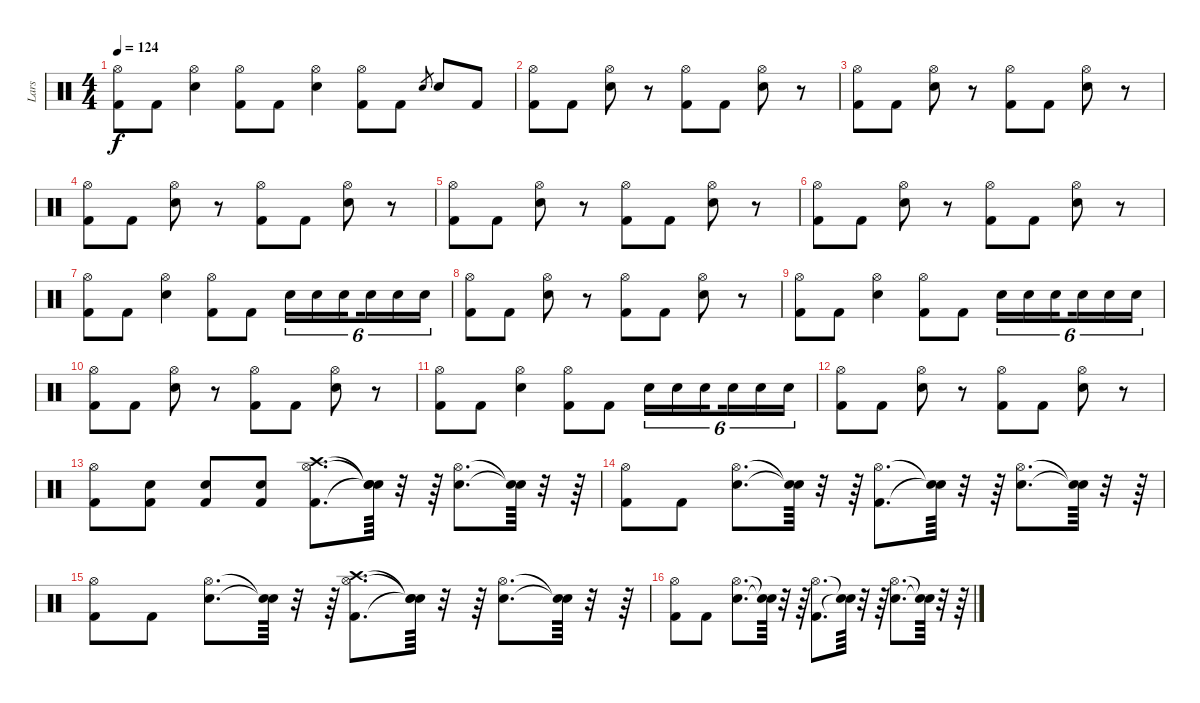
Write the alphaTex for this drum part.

\track ("Lars" "Lars") {instrument percussion}
\staff {score}
\articulation defaults
\ts (4 4)
\tempo 124
\clef neutral
\ks c
("Kick (hit) 2" "Hi-Hat (open)").8{dy f} "Kick (hit) 2".8 ("Snare (hit) 2" "Hi-Hat (open)").4 ("Kick (hit) 2" "Hi-Hat (open)").8 "Kick (hit) 2".8 ("Snare (hit) 2" "Hi-Hat (open)").4 ("Kick (hit) 2" "Hi-Hat (open)").8 "Kick (hit) 2".8 "Snare (hit) 2".8{gr} "Snare (hit) 2".8 "Kick (hit) 2".8 |
("Kick (hit) 2" "Hi-Hat (open)").8 "Kick (hit) 2".8 ("Snare (hit) 2" "Hi-Hat (open)").8 r.8 ("Kick (hit) 2" "Hi-Hat (open)").8 "Kick (hit) 2".8 ("Snare (hit) 2" "Hi-Hat (open)").8 r.8 |
("Kick (hit) 2" "Hi-Hat (open)").8 "Kick (hit) 2".8 ("Snare (hit) 2" "Hi-Hat (open)").8 r.8 ("Kick (hit) 2" "Hi-Hat (open)").8 "Kick (hit) 2".8 ("Snare (hit) 2" "Hi-Hat (open)").8 r.8 |
("Kick (hit) 2" "Hi-Hat (open)").8 "Kick (hit) 2".8 ("Snare (hit) 2" "Hi-Hat (open)").8 r.8 ("Kick (hit) 2" "Hi-Hat (open)").8 "Kick (hit) 2".8 ("Snare (hit) 2" "Hi-Hat (open)").8 r.8 |
("Kick (hit) 2" "Hi-Hat (open)").8 "Kick (hit) 2".8 ("Snare (hit) 2" "Hi-Hat (open)").8 r.8 ("Kick (hit) 2" "Hi-Hat (open)").8 "Kick (hit) 2".8 ("Snare (hit) 2" "Hi-Hat (open)").8 r.8 |
("Kick (hit) 2" "Hi-Hat (open)").8 "Kick (hit) 2".8 ("Snare (hit) 2" "Hi-Hat (open)").8 r.8 ("Kick (hit) 2" "Hi-Hat (open)").8 "Kick (hit) 2".8 ("Snare (hit) 2" "Hi-Hat (open)").8 r.8 |
("Kick (hit) 2" "Hi-Hat (open)").8 "Kick (hit) 2".8 ("Snare (hit) 2" "Hi-Hat (open)").4 ("Kick (hit) 2" "Hi-Hat (open)").8 "Kick (hit) 2".8 "Snare (hit) 2".16{tu (6 4)} "Snare (hit) 2".16{tu (6 4)} "Snare (hit) 2".16{tu (6 4) beam splitsecondary} "Snare (hit) 2".16{tu (6 4)} "Snare (hit) 2".16{tu (6 4)} "Snare (hit) 2".16{tu (6 4)} |
("Kick (hit) 2" "Hi-Hat (open)").8 "Kick (hit) 2".8 ("Snare (hit) 2" "Hi-Hat (open)").8 r.8 ("Kick (hit) 2" "Hi-Hat (open)").8 "Kick (hit) 2".8 ("Snare (hit) 2" "Hi-Hat (open)").8 r.8 |
("Kick (hit) 2" "Hi-Hat (open)").8 "Kick (hit) 2".8 ("Snare (hit) 2" "Hi-Hat (open)").4 ("Kick (hit) 2" "Hi-Hat (open)").8 "Kick (hit) 2".8 "Snare (hit) 2".16{tu (6 4)} "Snare (hit) 2".16{tu (6 4)} "Snare (hit) 2".16{tu (6 4) beam splitsecondary} "Snare (hit) 2".16{tu (6 4)} "Snare (hit) 2".16{tu (6 4)} "Snare (hit) 2".16{tu (6 4)} |
("Kick (hit) 2" "Hi-Hat (open)").8 "Kick (hit) 2".8 ("Snare (hit) 2" "Hi-Hat (open)").8 r.8 ("Kick (hit) 2" "Hi-Hat (open)").8 "Kick (hit) 2".8 ("Snare (hit) 2" "Hi-Hat (open)").8 r.8 |
("Kick (hit) 2" "Hi-Hat (open)").8 "Kick (hit) 2".8 ("Snare (hit) 2" "Hi-Hat (open)").4 ("Kick (hit) 2" "Hi-Hat (open)").8 "Kick (hit) 2".8 "Snare (hit) 2".16{tu (6 4)} "Snare (hit) 2".16{tu (6 4)} "Snare (hit) 2".16{tu (6 4) beam splitsecondary} "Snare (hit) 2".16{tu (6 4)} "Snare (hit) 2".16{tu (6 4)} "Snare (hit) 2".16{tu (6 4)} |
("Kick (hit) 2" "Hi-Hat (open)").8 "Kick (hit) 2".8 ("Snare (hit) 2" "Hi-Hat (open)").8 r.8 ("Kick (hit) 2" "Hi-Hat (open)").8 "Kick (hit) 2".8 ("Snare (hit) 2" "Hi-Hat (open)").8 r.8 |
("Kick (hit) 2" "Hi-Hat (open)").8 ("Kick (hit) 2" "Snare (hit) 2").8 ("Kick (hit) 2" "Snare (hit) 2").8 ("Kick (hit) 2" "Snare (hit) 2").8 ("Kick (hit) 2" "Hi-Hat (open)" "Crash high (hit)").8{d} ("Snare (hit)"{t} "Snare (hit)"{t} "Snare (hit)"{t}).64 r.32 r.64 ("Snare (hit) 2" "Hi-Hat (open)").8{d} ("Snare (hit)"{t} "Snare (hit)"{t}).64 r.32 r.64 |
("Kick (hit) 2" "Hi-Hat (open)").8 "Kick (hit) 2".8 ("Snare (hit) 2" "Hi-Hat (open)").8{d} ("Snare (hit)"{t} "Snare (hit)"{t}).64 r.32 r.64 ("Kick (hit) 2" "Hi-Hat (open)").8{d} ("Snare (hit)"{t} "Snare (hit)"{t}).64 r.32 r.64 ("Snare (hit) 2" "Hi-Hat (open)").8{d} ("Snare (hit)"{t} "Snare (hit)"{t}).64 r.32 r.64 |
("Kick (hit) 2" "Hi-Hat (open)").8 "Kick (hit) 2".8 ("Snare (hit) 2" "Hi-Hat (open)").8{d} ("Snare (hit)"{t} "Snare (hit)"{t}).64 r.32 r.64 ("Kick (hit) 2" "Hi-Hat (open)" "Crash high (hit)").8{d} ("Snare (hit)"{t} "Snare (hit)"{t} "Snare (hit)"{t}).64 r.32 r.64 ("Snare (hit) 2" "Hi-Hat (open)").8{d} ("Snare (hit)"{t} "Snare (hit)"{t}).64 r.32 r.64 |
("Kick (hit) 2" "Hi-Hat (open)").8 "Kick (hit) 2".8 ("Snare (hit) 2" "Hi-Hat (open)").8{d} ("Snare (hit)"{t} "Snare (hit)"{t}).64 r.32 r.64 ("Kick (hit) 2" "Hi-Hat (open)").8{d} ("Snare (hit)"{t} "Snare (hit)"{t}).64 r.32 r.64 ("Snare (hit) 2" "Hi-Hat (open)").8{d} ("Snare (hit)"{t} "Snare (hit)"{t}).64 r.32 r.64
